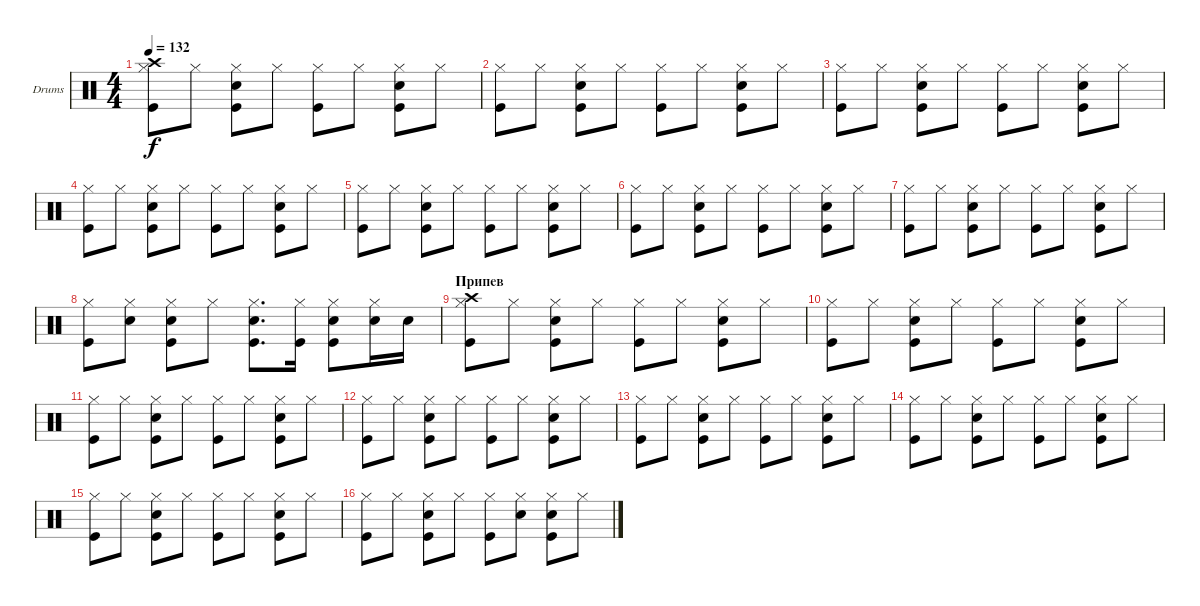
\defaultSystemsLayout 4
\bracketExtendMode groupsimilarinstruments
\firstSystemTrackNameOrientation horizontal
\otherSystemsTrackNameOrientation horizontal
\track ("Drumkit" "Drums") {instrument percussion}
\staff {score}
\articulation defaults
\ts (4 4)
\tempo 132
\clef neutral
\ks c
("Hi-Hat (closed)" "Kick (hit)" "Crash high (hit)").8{dy f} "Hi-Hat (closed)".8 ("Hi-Hat (closed)" "Kick (hit)" "Snare (hit) 2").8 "Hi-Hat (closed)".8 ("Hi-Hat (closed)" "Kick (hit)").8 "Hi-Hat (closed)".8 ("Hi-Hat (closed)" "Kick (hit)" "Snare (hit) 2").8 "Hi-Hat (closed)".8 |
("Hi-Hat (closed)" "Kick (hit)").8 "Hi-Hat (closed)".8 ("Hi-Hat (closed)" "Kick (hit)" "Snare (hit) 2").8 "Hi-Hat (closed)".8 ("Hi-Hat (closed)" "Kick (hit)").8 "Hi-Hat (closed)".8 ("Hi-Hat (closed)" "Kick (hit)" "Snare (hit) 2").8 "Hi-Hat (closed)".8 |
("Hi-Hat (closed)" "Kick (hit)").8 "Hi-Hat (closed)".8 ("Hi-Hat (closed)" "Kick (hit)" "Snare (hit) 2").8 "Hi-Hat (closed)".8 ("Hi-Hat (closed)" "Kick (hit)").8 "Hi-Hat (closed)".8 ("Hi-Hat (closed)" "Kick (hit)" "Snare (hit) 2").8 "Hi-Hat (closed)".8 |
("Hi-Hat (closed)" "Kick (hit)").8 "Hi-Hat (closed)".8 ("Hi-Hat (closed)" "Kick (hit)" "Snare (hit) 2").8 "Hi-Hat (closed)".8 ("Hi-Hat (closed)" "Kick (hit)").8 "Hi-Hat (closed)".8 ("Hi-Hat (closed)" "Kick (hit)" "Snare (hit) 2").8 "Hi-Hat (closed)".8 |
("Hi-Hat (closed)" "Kick (hit)").8 "Hi-Hat (closed)".8 ("Hi-Hat (closed)" "Kick (hit)" "Snare (hit) 2").8 "Hi-Hat (closed)".8 ("Hi-Hat (closed)" "Kick (hit)").8 "Hi-Hat (closed)".8 ("Hi-Hat (closed)" "Kick (hit)" "Snare (hit) 2").8 "Hi-Hat (closed)".8 |
("Hi-Hat (closed)" "Kick (hit)").8 "Hi-Hat (closed)".8 ("Hi-Hat (closed)" "Kick (hit)" "Snare (hit) 2").8 "Hi-Hat (closed)".8 ("Hi-Hat (closed)" "Kick (hit)").8 "Hi-Hat (closed)".8 ("Hi-Hat (closed)" "Kick (hit)" "Snare (hit) 2").8 "Hi-Hat (closed)".8 |
("Hi-Hat (closed)" "Kick (hit)").8 "Hi-Hat (closed)".8 ("Hi-Hat (closed)" "Kick (hit)" "Snare (hit) 2").8 "Hi-Hat (closed)".8 ("Hi-Hat (closed)" "Kick (hit)").8 "Hi-Hat (closed)".8 ("Hi-Hat (closed)" "Kick (hit)" "Snare (hit) 2").8 "Hi-Hat (closed)".8 |
("Kick (hit)" "Hi-Hat (closed)").8 ("Hi-Hat (closed)" "Snare (hit) 2").8 ("Kick (hit)" "Hi-Hat (closed)" "Snare (hit) 2").8 "Hi-Hat (closed)".8 ("Kick (hit)" "Hi-Hat (closed)" "Snare (hit) 2").8{d} ("Kick (hit)" "Hi-Hat (closed)").16 ("Kick (hit)" "Hi-Hat (closed)" "Snare (hit) 2").8 ("Hi-Hat (closed)" "Snare (hit) 2").16 "Snare (hit) 2".16 |
\section ("" "Припев")
("Hi-Hat (closed)" "Kick (hit)" "Crash high (hit)").8 "Hi-Hat (closed)".8 ("Hi-Hat (closed)" "Kick (hit)" "Snare (hit) 2").8 "Hi-Hat (closed)".8 ("Hi-Hat (closed)" "Kick (hit)").8 "Hi-Hat (closed)".8 ("Hi-Hat (closed)" "Kick (hit)" "Snare (hit) 2").8 "Hi-Hat (closed)".8 |
("Hi-Hat (closed)" "Kick (hit)").8 "Hi-Hat (closed)".8 ("Hi-Hat (closed)" "Kick (hit)" "Snare (hit) 2").8 "Hi-Hat (closed)".8 ("Hi-Hat (closed)" "Kick (hit)").8 "Hi-Hat (closed)".8 ("Hi-Hat (closed)" "Kick (hit)" "Snare (hit) 2").8 "Hi-Hat (closed)".8 |
("Hi-Hat (closed)" "Kick (hit)").8 "Hi-Hat (closed)".8 ("Hi-Hat (closed)" "Kick (hit)" "Snare (hit) 2").8 "Hi-Hat (closed)".8 ("Hi-Hat (closed)" "Kick (hit)").8 "Hi-Hat (closed)".8 ("Hi-Hat (closed)" "Kick (hit)" "Snare (hit) 2").8 "Hi-Hat (closed)".8 |
("Hi-Hat (closed)" "Kick (hit)").8 "Hi-Hat (closed)".8 ("Hi-Hat (closed)" "Kick (hit)" "Snare (hit) 2").8 "Hi-Hat (closed)".8 ("Hi-Hat (closed)" "Kick (hit)").8 "Hi-Hat (closed)".8 ("Hi-Hat (closed)" "Kick (hit)" "Snare (hit) 2").8 "Hi-Hat (closed)".8 |
("Hi-Hat (closed)" "Kick (hit)").8 "Hi-Hat (closed)".8 ("Hi-Hat (closed)" "Kick (hit)" "Snare (hit) 2").8 "Hi-Hat (closed)".8 ("Hi-Hat (closed)" "Kick (hit)").8 "Hi-Hat (closed)".8 ("Hi-Hat (closed)" "Kick (hit)" "Snare (hit) 2").8 "Hi-Hat (closed)".8 |
("Hi-Hat (closed)" "Kick (hit)").8 "Hi-Hat (closed)".8 ("Hi-Hat (closed)" "Kick (hit)" "Snare (hit) 2").8 "Hi-Hat (closed)".8 ("Hi-Hat (closed)" "Kick (hit)").8 "Hi-Hat (closed)".8 ("Hi-Hat (closed)" "Kick (hit)" "Snare (hit) 2").8 "Hi-Hat (closed)".8 |
("Hi-Hat (closed)" "Kick (hit)").8 "Hi-Hat (closed)".8 ("Hi-Hat (closed)" "Kick (hit)" "Snare (hit) 2").8 "Hi-Hat (closed)".8 ("Hi-Hat (closed)" "Kick (hit)").8 "Hi-Hat (closed)".8 ("Hi-Hat (closed)" "Kick (hit)" "Snare (hit) 2").8 "Hi-Hat (closed)".8 |
("Hi-Hat (closed)" "Kick (hit)").8 "Hi-Hat (closed)".8 ("Hi-Hat (closed)" "Kick (hit)" "Snare (hit) 2").8 "Hi-Hat (closed)".8 ("Hi-Hat (closed)" "Kick (hit)").8 ("Hi-Hat (closed)" "Snare (hit) 2").8 ("Hi-Hat (closed)" "Kick (hit)" "Snare (hit) 2").8 "Hi-Hat (closed)".8
